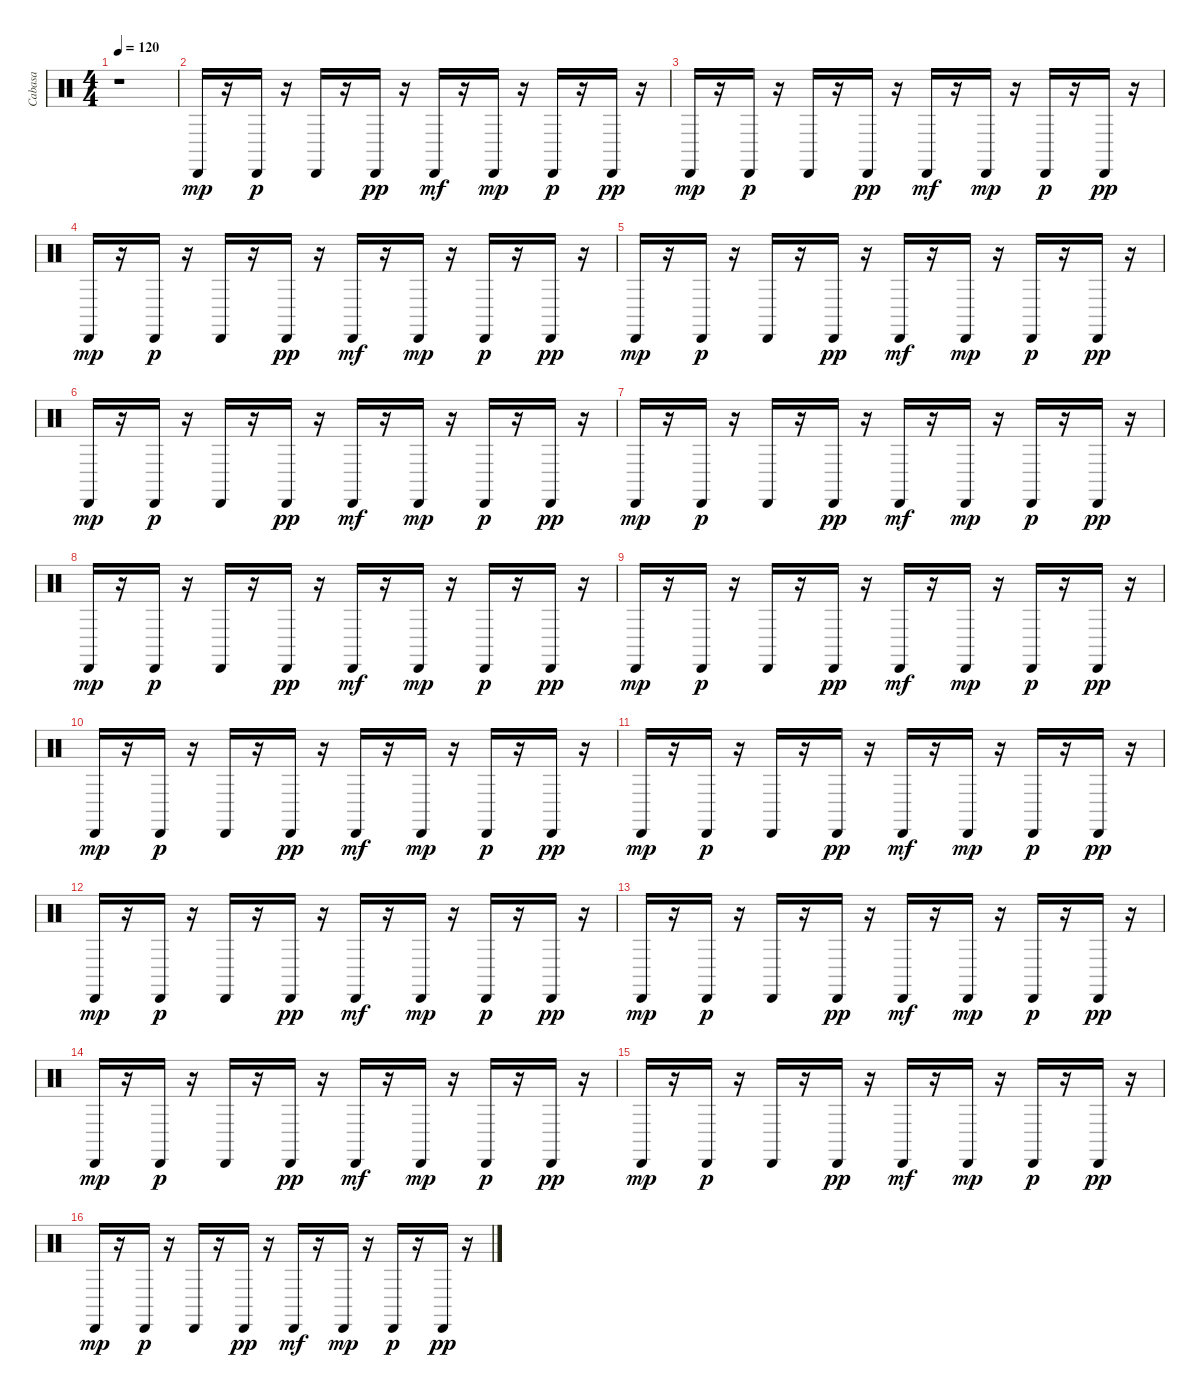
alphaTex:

\track ("Cabasa" "Cabasa") {instrument percussion}
\staff {score}
\articulation defaults
\ts (4 4)
\tempo 120
\clef neutral
\ks c
r.1{dy mp} |
"Cabasa (hit)".16 r.16 "Cabasa (hit)".16{dy p} r.16 "Cabasa (hit)".16 r.16 "Cabasa (hit)".16{dy pp} r.16 "Cabasa (hit)".16{dy mf} r.16 "Cabasa (hit)".16{dy mp} r.16 "Cabasa (hit)".16{dy p} r.16 "Cabasa (hit)".16{dy pp} r.16 |
"Cabasa (hit)".16{dy mp} r.16 "Cabasa (hit)".16{dy p} r.16 "Cabasa (hit)".16 r.16 "Cabasa (hit)".16{dy pp} r.16 "Cabasa (hit)".16{dy mf} r.16 "Cabasa (hit)".16{dy mp} r.16 "Cabasa (hit)".16{dy p} r.16 "Cabasa (hit)".16{dy pp} r.16 |
"Cabasa (hit)".16{dy mp} r.16 "Cabasa (hit)".16{dy p} r.16 "Cabasa (hit)".16 r.16 "Cabasa (hit)".16{dy pp} r.16 "Cabasa (hit)".16{dy mf} r.16 "Cabasa (hit)".16{dy mp} r.16 "Cabasa (hit)".16{dy p} r.16 "Cabasa (hit)".16{dy pp} r.16 |
"Cabasa (hit)".16{dy mp} r.16 "Cabasa (hit)".16{dy p} r.16 "Cabasa (hit)".16 r.16 "Cabasa (hit)".16{dy pp} r.16 "Cabasa (hit)".16{dy mf} r.16 "Cabasa (hit)".16{dy mp} r.16 "Cabasa (hit)".16{dy p} r.16 "Cabasa (hit)".16{dy pp} r.16 |
"Cabasa (hit)".16{dy mp} r.16 "Cabasa (hit)".16{dy p} r.16 "Cabasa (hit)".16 r.16 "Cabasa (hit)".16{dy pp} r.16 "Cabasa (hit)".16{dy mf} r.16 "Cabasa (hit)".16{dy mp} r.16 "Cabasa (hit)".16{dy p} r.16 "Cabasa (hit)".16{dy pp} r.16 |
"Cabasa (hit)".16{dy mp} r.16 "Cabasa (hit)".16{dy p} r.16 "Cabasa (hit)".16 r.16 "Cabasa (hit)".16{dy pp} r.16 "Cabasa (hit)".16{dy mf} r.16 "Cabasa (hit)".16{dy mp} r.16 "Cabasa (hit)".16{dy p} r.16 "Cabasa (hit)".16{dy pp} r.16 |
"Cabasa (hit)".16{dy mp} r.16 "Cabasa (hit)".16{dy p} r.16 "Cabasa (hit)".16 r.16 "Cabasa (hit)".16{dy pp} r.16 "Cabasa (hit)".16{dy mf} r.16 "Cabasa (hit)".16{dy mp} r.16 "Cabasa (hit)".16{dy p} r.16 "Cabasa (hit)".16{dy pp} r.16 |
"Cabasa (hit)".16{dy mp} r.16 "Cabasa (hit)".16{dy p} r.16 "Cabasa (hit)".16 r.16 "Cabasa (hit)".16{dy pp} r.16 "Cabasa (hit)".16{dy mf} r.16 "Cabasa (hit)".16{dy mp} r.16 "Cabasa (hit)".16{dy p} r.16 "Cabasa (hit)".16{dy pp} r.16 |
"Cabasa (hit)".16{dy mp} r.16 "Cabasa (hit)".16{dy p} r.16 "Cabasa (hit)".16 r.16 "Cabasa (hit)".16{dy pp} r.16 "Cabasa (hit)".16{dy mf} r.16 "Cabasa (hit)".16{dy mp} r.16 "Cabasa (hit)".16{dy p} r.16 "Cabasa (hit)".16{dy pp} r.16 |
"Cabasa (hit)".16{dy mp} r.16 "Cabasa (hit)".16{dy p} r.16 "Cabasa (hit)".16 r.16 "Cabasa (hit)".16{dy pp} r.16 "Cabasa (hit)".16{dy mf} r.16 "Cabasa (hit)".16{dy mp} r.16 "Cabasa (hit)".16{dy p} r.16 "Cabasa (hit)".16{dy pp} r.16 |
"Cabasa (hit)".16{dy mp} r.16 "Cabasa (hit)".16{dy p} r.16 "Cabasa (hit)".16 r.16 "Cabasa (hit)".16{dy pp} r.16 "Cabasa (hit)".16{dy mf} r.16 "Cabasa (hit)".16{dy mp} r.16 "Cabasa (hit)".16{dy p} r.16 "Cabasa (hit)".16{dy pp} r.16 |
"Cabasa (hit)".16{dy mp} r.16 "Cabasa (hit)".16{dy p} r.16 "Cabasa (hit)".16 r.16 "Cabasa (hit)".16{dy pp} r.16 "Cabasa (hit)".16{dy mf} r.16 "Cabasa (hit)".16{dy mp} r.16 "Cabasa (hit)".16{dy p} r.16 "Cabasa (hit)".16{dy pp} r.16 |
"Cabasa (hit)".16{dy mp} r.16 "Cabasa (hit)".16{dy p} r.16 "Cabasa (hit)".16 r.16 "Cabasa (hit)".16{dy pp} r.16 "Cabasa (hit)".16{dy mf} r.16 "Cabasa (hit)".16{dy mp} r.16 "Cabasa (hit)".16{dy p} r.16 "Cabasa (hit)".16{dy pp} r.16 |
"Cabasa (hit)".16{dy mp} r.16 "Cabasa (hit)".16{dy p} r.16 "Cabasa (hit)".16 r.16 "Cabasa (hit)".16{dy pp} r.16 "Cabasa (hit)".16{dy mf} r.16 "Cabasa (hit)".16{dy mp} r.16 "Cabasa (hit)".16{dy p} r.16 "Cabasa (hit)".16{dy pp} r.16 |
"Cabasa (hit)".16{dy mp} r.16 "Cabasa (hit)".16{dy p} r.16 "Cabasa (hit)".16 r.16 "Cabasa (hit)".16{dy pp} r.16 "Cabasa (hit)".16{dy mf} r.16 "Cabasa (hit)".16{dy mp} r.16 "Cabasa (hit)".16{dy p} r.16 "Cabasa (hit)".16{dy pp} r.16
